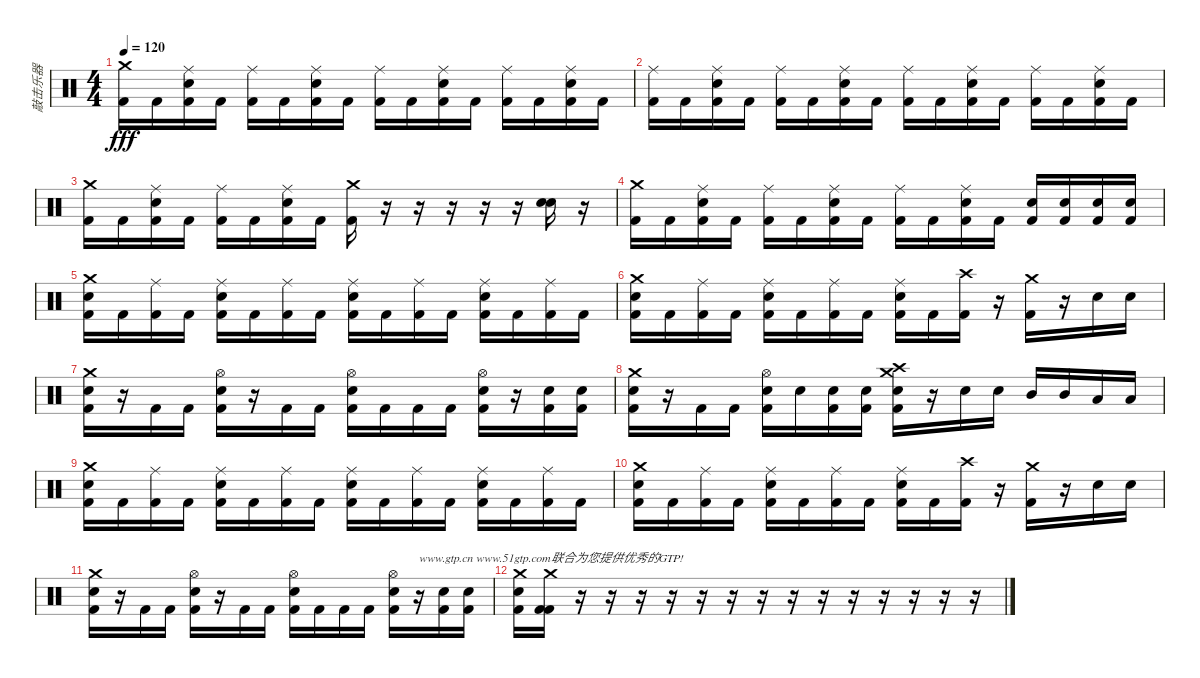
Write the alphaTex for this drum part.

\track ("敲击乐器" "敲击乐器") {instrument percussion}
\staff {score}
\articulation defaults
\ts (4 4)
\tempo 120
\clef neutral
\ks c
("Crash medium (hit)" "Kick (hit) 2").16{dy fff} "Kick (hit) 2".16 ("Ride (middle)" "Snare (hit) 2" "Kick (hit) 2").16 "Kick (hit) 2".16 ("Ride (middle)" "Kick (hit) 2").16 "Kick (hit) 2".16 ("Ride (middle)" "Snare (hit) 2" "Kick (hit) 2").16 "Kick (hit) 2".16 ("Ride (middle)" "Kick (hit) 2").16 "Kick (hit) 2".16 ("Ride (middle)" "Snare (hit) 2" "Kick (hit) 2").16 "Kick (hit) 2".16 ("Ride (middle)" "Kick (hit) 2").16 "Kick (hit) 2".16 ("Ride (middle)" "Snare (hit) 2" "Kick (hit) 2").16 "Kick (hit) 2".16 |
("Ride (middle)" "Kick (hit) 2").16 "Kick (hit) 2".16 ("Ride (middle)" "Snare (hit) 2" "Kick (hit) 2").16 "Kick (hit) 2".16 ("Ride (middle)" "Kick (hit) 2").16 "Kick (hit) 2".16 ("Ride (middle)" "Snare (hit) 2" "Kick (hit) 2").16 "Kick (hit) 2".16 ("Ride (middle)" "Kick (hit) 2").16 "Kick (hit) 2".16 ("Ride (middle)" "Snare (hit) 2" "Kick (hit) 2").16 "Kick (hit) 2".16 ("Ride (middle)" "Kick (hit) 2").16 "Kick (hit) 2".16 ("Ride (middle)" "Snare (hit) 2" "Kick (hit) 2").16 "Kick (hit) 2".16 |
("Crash medium (hit)" "Kick (hit) 2").16 "Kick (hit) 2".16 ("Ride (middle)" "Snare (hit) 2" "Kick (hit) 2").16 "Kick (hit) 2".16 ("Ride (middle)" "Kick (hit) 2").16 "Kick (hit) 2".16 ("Ride (middle)" "Snare (hit) 2" "Kick (hit) 2").16 "Kick (hit) 2".16 ("Crash medium (hit)" "Kick (hit) 2").16 r.16 r.16 r.16 r.16 r.16 ("Snare (hit) 2" "Snare (hit) 2").16 r.16 |
("Crash medium (hit)" "Kick (hit) 2").16 "Kick (hit) 2".16 ("Ride (middle)" "Snare (hit) 2" "Kick (hit) 2").16 "Kick (hit) 2".16 ("Ride (middle)" "Kick (hit) 2").16 "Kick (hit) 2".16 ("Ride (middle)" "Snare (hit) 2" "Kick (hit) 2").16 "Kick (hit) 2".16 ("Ride (middle)" "Kick (hit) 2").16 "Kick (hit) 2".16 ("Ride (middle)" "Snare (hit) 2" "Kick (hit) 2").16 "Kick (hit) 2".16 ("Snare (hit) 2" "Kick (hit) 2").16 ("Snare (hit) 2" "Kick (hit) 2").16 ("Snare (hit) 2" "Kick (hit) 2").16 ("Snare (hit) 2" "Kick (hit) 2").16 |
("Crash medium (hit)" "Snare (hit) 2" "Kick (hit) 2").16 "Kick (hit) 2".16 ("Ride (middle)" "Kick (hit) 2").16 "Kick (hit) 2".16 ("Ride (middle)" "Snare (hit) 2" "Kick (hit) 2").16 "Kick (hit) 2".16 ("Ride (middle)" "Kick (hit) 2").16 "Kick (hit) 2".16 ("Ride (middle)" "Snare (hit) 2" "Kick (hit) 2").16 "Kick (hit) 2".16 ("Ride (middle)" "Kick (hit) 2").16 "Kick (hit) 2".16 ("Ride (middle)" "Snare (hit) 2" "Kick (hit) 2").16 "Kick (hit) 2".16 ("Ride (middle)" "Kick (hit) 2").16 "Kick (hit) 2".16 |
("Crash medium (hit)" "Snare (hit) 2" "Kick (hit) 2").16 "Kick (hit) 2".16 ("Ride (middle)" "Kick (hit) 2").16 "Kick (hit) 2".16 ("Ride (middle)" "Snare (hit) 2" "Kick (hit) 2").16 "Kick (hit) 2".16 ("Ride (middle)" "Kick (hit) 2").16 "Kick (hit) 2".16 ("Ride (middle)" "Snare (hit) 2" "Kick (hit) 2").16 "Kick (hit) 2".16 ("Crash high (hit)" "Kick (hit) 2").16 r.16 ("Crash medium (hit)" "Kick (hit) 2").16 r.16 "Snare (hit) 2".16 "Snare (hit) 2".16 |
("Crash medium (hit)" "Snare (hit) 2" "Kick (hit) 2").16 r.16 "Kick (hit) 2".16 "Kick (hit) 2".16 ("Hi-Hat (open)" "Snare (hit) 2" "Kick (hit) 2").16 r.16 "Kick (hit) 2".16 "Kick (hit) 2".16 ("Hi-Hat (open)" "Snare (hit) 2" "Kick (hit) 2").16 "Kick (hit) 2".16 "Kick (hit) 2".16 "Kick (hit) 2".16 ("Hi-Hat (open)" "Snare (hit) 2" "Kick (hit) 2").16 r.16 ("Snare (hit) 2" "Kick (hit) 2").16 ("Snare (hit) 2" "Kick (hit) 2").16 |
("Crash medium (hit)" "Snare (hit) 2" "Kick (hit) 2").16 r.16 "Kick (hit) 2".16 "Kick (hit) 2".16 ("Hi-Hat (open)" "Snare (hit) 2" "Kick (hit) 2").16 "Snare (hit) 2".16 ("Snare (hit) 2" "Kick (hit) 2").16 ("Snare (hit) 2" "Kick (hit) 2").16 ("Crash medium (hit)" "Crash high (hit)" "Snare (hit) 2" "Kick (hit) 2").16 r.16 "Snare (hit) 2".16 "Snare (hit) 2".16 "Mid Tom (hit)".16 "Mid Tom (hit)".16 "Low Tom (hit)".16 "Low Tom (hit)".16 |
("Crash medium (hit)" "Snare (hit) 2" "Kick (hit) 2").16 "Kick (hit) 2".16 ("Ride (middle)" "Kick (hit) 2").16 "Kick (hit) 2".16 ("Ride (middle)" "Snare (hit) 2" "Kick (hit) 2").16 "Kick (hit) 2".16 ("Ride (middle)" "Kick (hit) 2").16 "Kick (hit) 2".16 ("Ride (middle)" "Snare (hit) 2" "Kick (hit) 2").16 "Kick (hit) 2".16 ("Ride (middle)" "Kick (hit) 2").16 "Kick (hit) 2".16 ("Ride (middle)" "Snare (hit) 2" "Kick (hit) 2").16 "Kick (hit) 2".16 ("Ride (middle)" "Kick (hit) 2").16 "Kick (hit) 2".16 |
("Crash medium (hit)" "Snare (hit) 2" "Kick (hit) 2").16 "Kick (hit) 2".16 ("Ride (middle)" "Kick (hit) 2").16 "Kick (hit) 2".16 ("Ride (middle)" "Snare (hit) 2" "Kick (hit) 2").16 "Kick (hit) 2".16 ("Ride (middle)" "Kick (hit) 2").16 "Kick (hit) 2".16 ("Ride (middle)" "Snare (hit) 2" "Kick (hit) 2").16 "Kick (hit) 2".16 ("Crash high (hit)" "Kick (hit) 2").16 r.16 ("Crash medium (hit)" "Kick (hit) 2").16 r.16 "Snare (hit) 2".16 "Snare (hit) 2".16 |
("Crash medium (hit)" "Snare (hit) 2" "Kick (hit) 2").16 r.16 "Kick (hit) 2".16 "Kick (hit) 2".16 ("Hi-Hat (open)" "Snare (hit) 2" "Kick (hit) 2").16 r.16 "Kick (hit) 2".16 "Kick (hit) 2".16 ("Hi-Hat (open)" "Snare (hit) 2" "Kick (hit) 2").16 "Kick (hit) 2".16 "Kick (hit) 2".16 "Kick (hit) 2".16 ("Hi-Hat (open)" "Snare (hit) 2" "Kick (hit) 2").16 r.16{txt "www.gtp.cn www.51gtp.com联合为您提供优秀的GTP!"} ("Snare (hit) 2" "Kick (hit) 2").16 ("Snare (hit) 2" "Kick (hit) 2").16 |
("Crash medium (hit)" "Snare (hit) 2" "Kick (hit) 2").16 ("Crash medium (hit)" "Kick (hit) 2" "Kick (hit) 2").16 r.16 r.16 r.16 r.16 r.16 r.16 r.16 r.16 r.16 r.16 r.16 r.16 r.16 r.16
